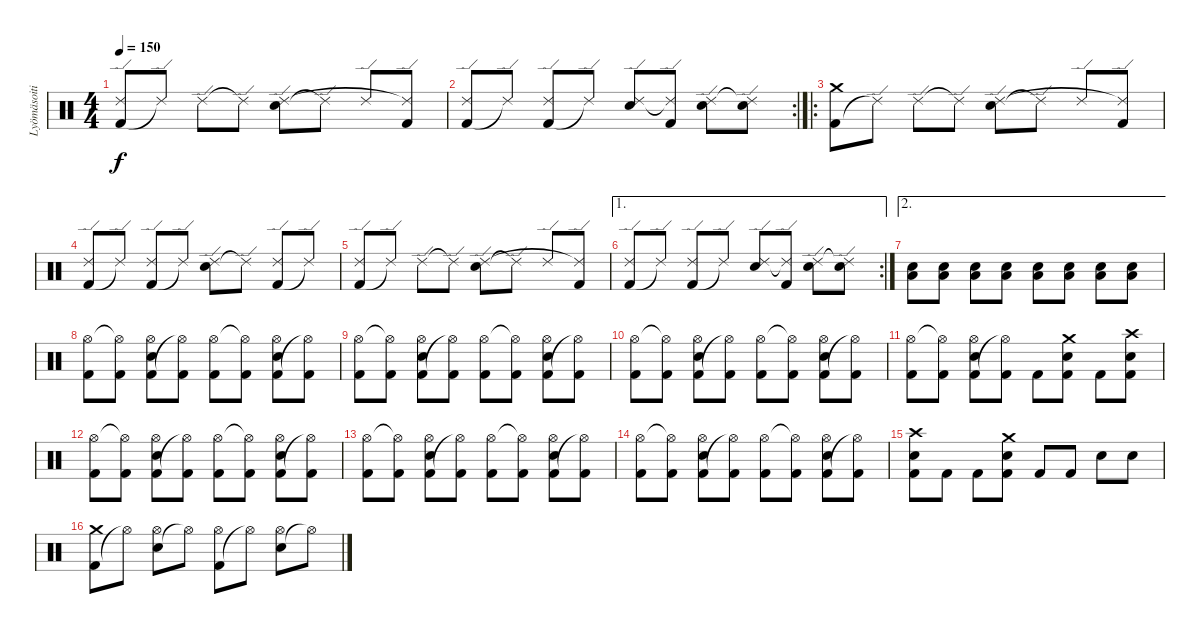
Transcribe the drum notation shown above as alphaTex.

\track ("Lyömäsoitin" "Lyömäsoiti") {instrument percussion}
\staff {score}
\articulation defaults
\ts (4 4)
\tempo 150
\clef neutral
\ks c
("Kick (hit) 2" "Ride (edge) 2").8{dy f} "Ride (edge) 2"{t}.8 "Ride (edge) 2".8 "Ride (edge) 2"{t}.8 ("Electric Snare (hit)" "Ride (edge) 2").8 "Ride (edge) 2"{t}.8 "Ride (edge) 2".8 ("Kick (hit) 2" "Ride (edge) 2"{t}).8 |
\rc 2
("Kick (hit) 2" "Ride (edge) 2").8 "Ride (edge) 2"{t}.8 ("Kick (hit) 2" "Ride (edge) 2").8 "Ride (edge) 2"{t}.8 ("Electric Snare (hit)" "Ride (edge) 2").8 ("Kick (hit) 2" "Ride (edge) 2"{t}).8 ("Electric Snare (hit)" "Ride (edge) 2").8 ("Electric Snare (hit)" "Ride (edge) 2"{t}).8 |
\ro
("Kick (hit) 2" "Crash medium (hit)").8 "Ride (edge) 2"{t}.8 "Ride (edge) 2".8 "Ride (edge) 2"{t}.8 ("Electric Snare (hit)" "Ride (edge) 2").8 "Ride (edge) 2"{t}.8 "Ride (edge) 2".8 ("Kick (hit) 2" "Ride (edge) 2"{t}).8 |
("Kick (hit) 2" "Ride (edge) 2").8 "Ride (edge) 2"{t}.8 ("Kick (hit) 2" "Ride (edge) 2").8 "Ride (edge) 2"{t}.8 ("Electric Snare (hit)" "Ride (edge) 2").8 "Ride (edge) 2"{t}.8 ("Kick (hit) 2" "Ride (edge) 2").8 "Ride (edge) 2"{t}.8 |
("Kick (hit) 2" "Ride (edge) 2").8 "Ride (edge) 2"{t}.8 "Ride (edge) 2".8 "Ride (edge) 2"{t}.8 ("Electric Snare (hit)" "Ride (edge) 2").8 "Ride (edge) 2"{t}.8 "Ride (edge) 2".8 ("Kick (hit) 2" "Ride (edge) 2"{t}).8 |
\ae 1
\rc 2
("Kick (hit) 2" "Ride (edge) 2").8 "Ride (edge) 2"{t}.8 ("Kick (hit) 2" "Ride (edge) 2").8 "Ride (edge) 2"{t}.8 ("Electric Snare (hit)" "Ride (edge) 2").8 ("Kick (hit) 2" "Ride (edge) 2"{t}).8 ("Electric Snare (hit)" "Ride (edge) 2").8 ("Electric Snare (hit)" "Ride (edge) 2"{t}).8 |
\ae 2
("Electric Snare (hit)" "Low Tom (hit)").8 ("Electric Snare (hit)" "Low Tom (hit)").8 ("Electric Snare (hit)" "Low Tom (hit)").8 ("Electric Snare (hit)" "Low Tom (hit)").8 ("Electric Snare (hit)" "Low Tom (hit)").8 ("Electric Snare (hit)" "Low Tom (hit)").8 ("Electric Snare (hit)" "Low Tom (hit)").8 ("Electric Snare (hit)" "Low Tom (hit)").8 |
("Kick (hit) 2" "Hi-Hat (open)").8 ("Kick (hit) 2" "Hi-Hat (open)"{t}).8 ("Electric Snare (hit)" "Kick (hit) 2" "Hi-Hat (open)").8 ("Kick (hit) 2" "Hi-Hat (open)"{t}).8 ("Kick (hit) 2" "Hi-Hat (open)").8 ("Kick (hit) 2" "Hi-Hat (open)"{t}).8 ("Electric Snare (hit)" "Kick (hit) 2" "Hi-Hat (open)").8 ("Kick (hit) 2" "Hi-Hat (open)"{t}).8 |
("Kick (hit) 2" "Hi-Hat (open)").8 ("Kick (hit) 2" "Hi-Hat (open)"{t}).8 ("Electric Snare (hit)" "Kick (hit) 2" "Hi-Hat (open)").8 ("Kick (hit) 2" "Hi-Hat (open)"{t}).8 ("Kick (hit) 2" "Hi-Hat (open)").8 ("Kick (hit) 2" "Hi-Hat (open)"{t}).8 ("Electric Snare (hit)" "Kick (hit) 2" "Hi-Hat (open)").8 ("Kick (hit) 2" "Hi-Hat (open)"{t}).8 |
("Kick (hit) 2" "Hi-Hat (open)").8 ("Kick (hit) 2" "Hi-Hat (open)"{t}).8 ("Electric Snare (hit)" "Kick (hit) 2" "Hi-Hat (open)").8 ("Kick (hit) 2" "Hi-Hat (open)"{t}).8 ("Kick (hit) 2" "Hi-Hat (open)").8 ("Kick (hit) 2" "Hi-Hat (open)"{t}).8 ("Electric Snare (hit)" "Kick (hit) 2" "Hi-Hat (open)").8 ("Kick (hit) 2" "Hi-Hat (open)"{t}).8 |
("Kick (hit) 2" "Hi-Hat (open)").8 ("Kick (hit) 2" "Hi-Hat (open)"{t}).8 ("Electric Snare (hit)" "Kick (hit) 2" "Hi-Hat (open)").8 ("Kick (hit) 2" "Hi-Hat (open)"{t}).8 "Kick (hit) 2".8 ("Electric Snare (hit)" "Kick (hit) 2" "Crash medium (hit)").8 "Kick (hit) 2".8 ("Electric Snare (hit)" "Kick (hit) 2" "Crash high (hit)").8 |
("Kick (hit) 2" "Hi-Hat (open)").8 ("Kick (hit) 2" "Hi-Hat (open)"{t}).8 ("Electric Snare (hit)" "Kick (hit) 2" "Hi-Hat (open)").8 ("Kick (hit) 2" "Hi-Hat (open)"{t}).8 ("Kick (hit) 2" "Hi-Hat (open)").8 ("Kick (hit) 2" "Hi-Hat (open)"{t}).8 ("Electric Snare (hit)" "Kick (hit) 2" "Hi-Hat (open)").8 ("Kick (hit) 2" "Hi-Hat (open)"{t}).8 |
("Kick (hit) 2" "Hi-Hat (open)").8 ("Kick (hit) 2" "Hi-Hat (open)"{t}).8 ("Electric Snare (hit)" "Kick (hit) 2" "Hi-Hat (open)").8 ("Kick (hit) 2" "Hi-Hat (open)"{t}).8 ("Kick (hit) 2" "Hi-Hat (open)").8 ("Kick (hit) 2" "Hi-Hat (open)"{t}).8 ("Electric Snare (hit)" "Kick (hit) 2" "Hi-Hat (open)").8 ("Kick (hit) 2" "Hi-Hat (open)"{t}).8 |
("Kick (hit) 2" "Hi-Hat (open)").8 ("Kick (hit) 2" "Hi-Hat (open)"{t}).8 ("Electric Snare (hit)" "Kick (hit) 2" "Hi-Hat (open)").8 ("Kick (hit) 2" "Hi-Hat (open)"{t}).8 ("Kick (hit) 2" "Hi-Hat (open)").8 ("Kick (hit) 2" "Hi-Hat (open)"{t}).8 ("Electric Snare (hit)" "Kick (hit) 2" "Hi-Hat (open)").8 ("Kick (hit) 2" "Hi-Hat (open)"{t}).8 |
("Electric Snare (hit)" "Kick (hit) 2" "Crash high (hit)").8 "Kick (hit) 2".8 "Kick (hit) 2".8 ("Electric Snare (hit)" "Kick (hit) 2" "Crash medium (hit)").8 "Kick (hit) 2".8 "Kick (hit) 2".8 "Electric Snare (hit)".8 "Electric Snare (hit)".8 |
("Kick (hit) 2" "Crash medium (hit)").8 "Hi-Hat (open)"{t}.8 ("Electric Snare (hit)" "Hi-Hat (open)").8 "Hi-Hat (open)"{t}.8 ("Kick (hit) 2" "Hi-Hat (open)").8 "Hi-Hat (open)"{t}.8 ("Electric Snare (hit)" "Hi-Hat (open)").8 "Hi-Hat (open)"{t}.8
